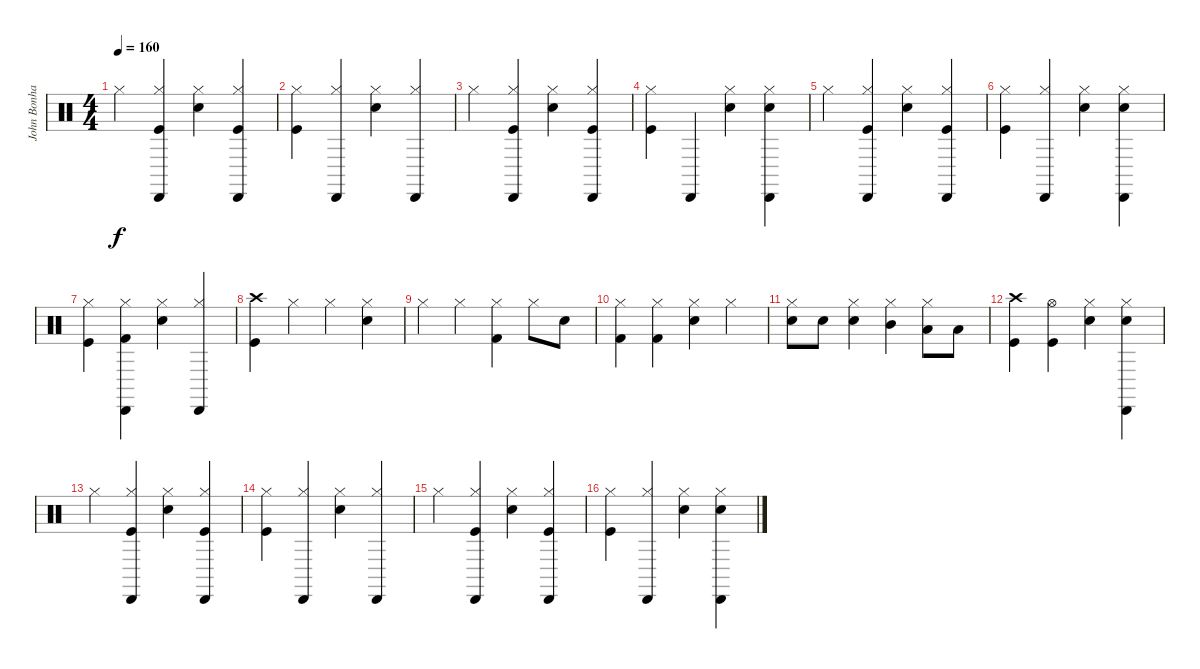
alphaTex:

\track ("John Bonham - Drums" "John Bonha") {instrument percussion}
\staff {score}
\articulation defaults
\ts (4 4)
\tempo 160
\clef neutral
\ks c "Hi-Hat (closed)".4{dy f}
("Hi-Hat (closed)" "Kick (hit)" "Cabasa (hit)").4 ("Hi-Hat (closed)" "Snare (hit) 2").4 ("Hi-Hat (closed)" "Kick (hit)" "Cabasa (hit)").4 |
("Hi-Hat (closed)" "Kick (hit)").4 ("Hi-Hat (closed)" "Cabasa (hit)").4 ("Snare (hit) 2" "Hi-Hat (closed)").4 ("Cabasa (hit)" "Hi-Hat (closed)").4 |
"Hi-Hat (closed)".4 ("Kick (hit)" "Hi-Hat (closed)" "Cabasa (hit)").4 ("Snare (hit) 2" "Hi-Hat (closed)").4 ("Hi-Hat (closed)" "Kick (hit)" "Cabasa (hit)").4 |
("Kick (hit)" "Hi-Hat (closed)").4 "Cabasa (hit)".4 ("Snare (hit) 2" "Hi-Hat (closed)").4 ("Snare (hit) 2" "Hi-Hat (closed)" "Cabasa (hit)").4 |
"Hi-Hat (closed)".4 ("Hi-Hat (closed)" "Kick (hit)" "Cabasa (hit)").4 ("Snare (hit) 2" "Hi-Hat (closed)").4 ("Hi-Hat (closed)" "Kick (hit)" "Cabasa (hit)").4 |
("Kick (hit)" "Hi-Hat (closed)").4 ("Cabasa (hit)" "Hi-Hat (closed)").4 ("Snare (hit) 2" "Hi-Hat (closed)").4 ("Snare (hit) 2" "Hi-Hat (closed)" "Cabasa (hit)").4 |
("Kick (hit)" "Hi-Hat (closed)").4 ("Cabasa (hit)" "Hi-Hat (closed)" "Kick (hit) 2").4 ("Snare (hit) 2" "Hi-Hat (closed)").4 ("Hi-Hat (closed)" "Cabasa (hit)").4 |
("Kick (hit)" "Crash high (hit)").4 "Hi-Hat (closed)".4 "Hi-Hat (closed)".4 ("Snare (hit) 2" "Hi-Hat (closed)").4 |
"Hi-Hat (closed)".4 "Hi-Hat (closed)".4 ("Hi-Hat (closed)" "Kick (hit) 2").4 "Hi-Hat (closed)".8 "Snare (hit) 2".8 |
("Kick (hit) 2" "Hi-Hat (closed)").4 ("Kick (hit) 2" "Hi-Hat (closed)").4 ("Snare (hit) 2" "Hi-Hat (closed)").4 "Hi-Hat (closed)".4 |
("Hi-Hat (closed)" "Snare (hit) 2").8 "Snare (hit) 2".8 ("Hi-Hat (closed)" "Snare (hit) 2").4 ("Hi-Hat (closed)" "Mid Tom (hit)").4 ("Hi-Hat (closed)" "Low Tom (hit)").8 "Low Tom (hit)".8 |
("Kick (hit)" "Crash high (hit)").4 ("Kick (hit)" "Hi-Hat (open)").4 ("Snare (hit) 2" "Hi-Hat (closed)").4 ("Snare (hit) 2" "Hi-Hat (closed)" "Cabasa (hit)").4 |
"Hi-Hat (closed)".4 ("Hi-Hat (closed)" "Cabasa (hit)" "Kick (hit)").4 ("Snare (hit) 2" "Hi-Hat (closed)").4 ("Kick (hit)" "Hi-Hat (closed)" "Cabasa (hit)").4 |
("Kick (hit)" "Hi-Hat (closed)").4 ("Hi-Hat (closed)" "Cabasa (hit)").4 ("Snare (hit) 2" "Hi-Hat (closed)").4 ("Hi-Hat (closed)" "Cabasa (hit)").4 |
"Hi-Hat (closed)".4 ("Hi-Hat (closed)" "Kick (hit)" "Cabasa (hit)").4 ("Hi-Hat (closed)" "Snare (hit) 2").4 ("Hi-Hat (closed)" "Cabasa (hit)" "Kick (hit)").4 |
("Hi-Hat (closed)" "Kick (hit)").4 ("Hi-Hat (closed)" "Cabasa (hit)").4 ("Hi-Hat (closed)" "Snare (hit) 2").4 ("Hi-Hat (closed)" "Snare (hit) 2" "Cabasa (hit)").4
